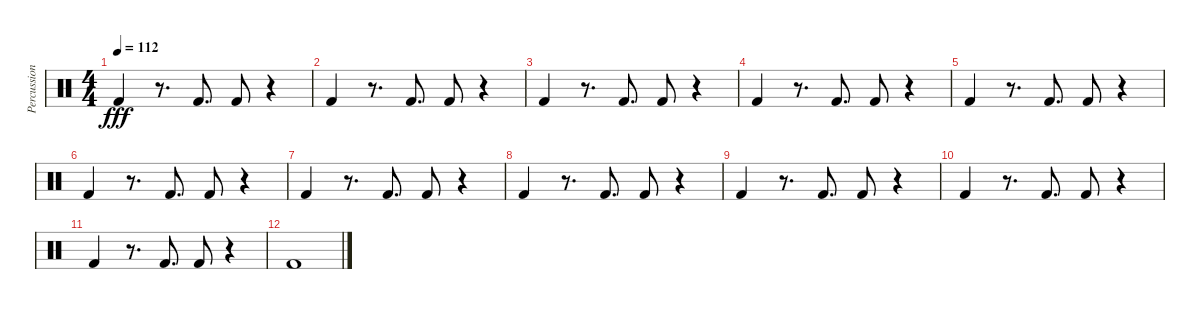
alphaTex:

\track ("Percussion" "Percussion") {instrument percussion}
\staff {score}
\articulation defaults
\ts (4 4)
\tempo 112
\clef neutral
\ks c "Kick (hit) 2".4{dy fff}
r.8{d} "Kick (hit) 2".8{d} "Kick (hit) 2".8 r.4 |
"Kick (hit) 2".4 r.8{d} "Kick (hit) 2".8{d} "Kick (hit) 2".8 r.4 |
"Kick (hit) 2".4 r.8{d} "Kick (hit) 2".8{d} "Kick (hit) 2".8 r.4 |
"Kick (hit) 2".4 r.8{d} "Kick (hit) 2".8{d} "Kick (hit) 2".8 r.4 |
"Kick (hit) 2".4 r.8{d} "Kick (hit) 2".8{d} "Kick (hit) 2".8 r.4 |
"Kick (hit) 2".4 r.8{d} "Kick (hit) 2".8{d} "Kick (hit) 2".8 r.4 |
"Kick (hit) 2".4 r.8{d} "Kick (hit) 2".8{d} "Kick (hit) 2".8 r.4 |
"Kick (hit) 2".4 r.8{d} "Kick (hit) 2".8{d} "Kick (hit) 2".8 r.4 |
"Kick (hit) 2".4 r.8{d} "Kick (hit) 2".8{d} "Kick (hit) 2".8 r.4 |
"Kick (hit) 2".4 r.8{d} "Kick (hit) 2".8{d} "Kick (hit) 2".8 r.4 |
"Kick (hit) 2".4 r.8{d} "Kick (hit) 2".8{d} "Kick (hit) 2".8 r.4 |
"Kick (hit) 2".1
